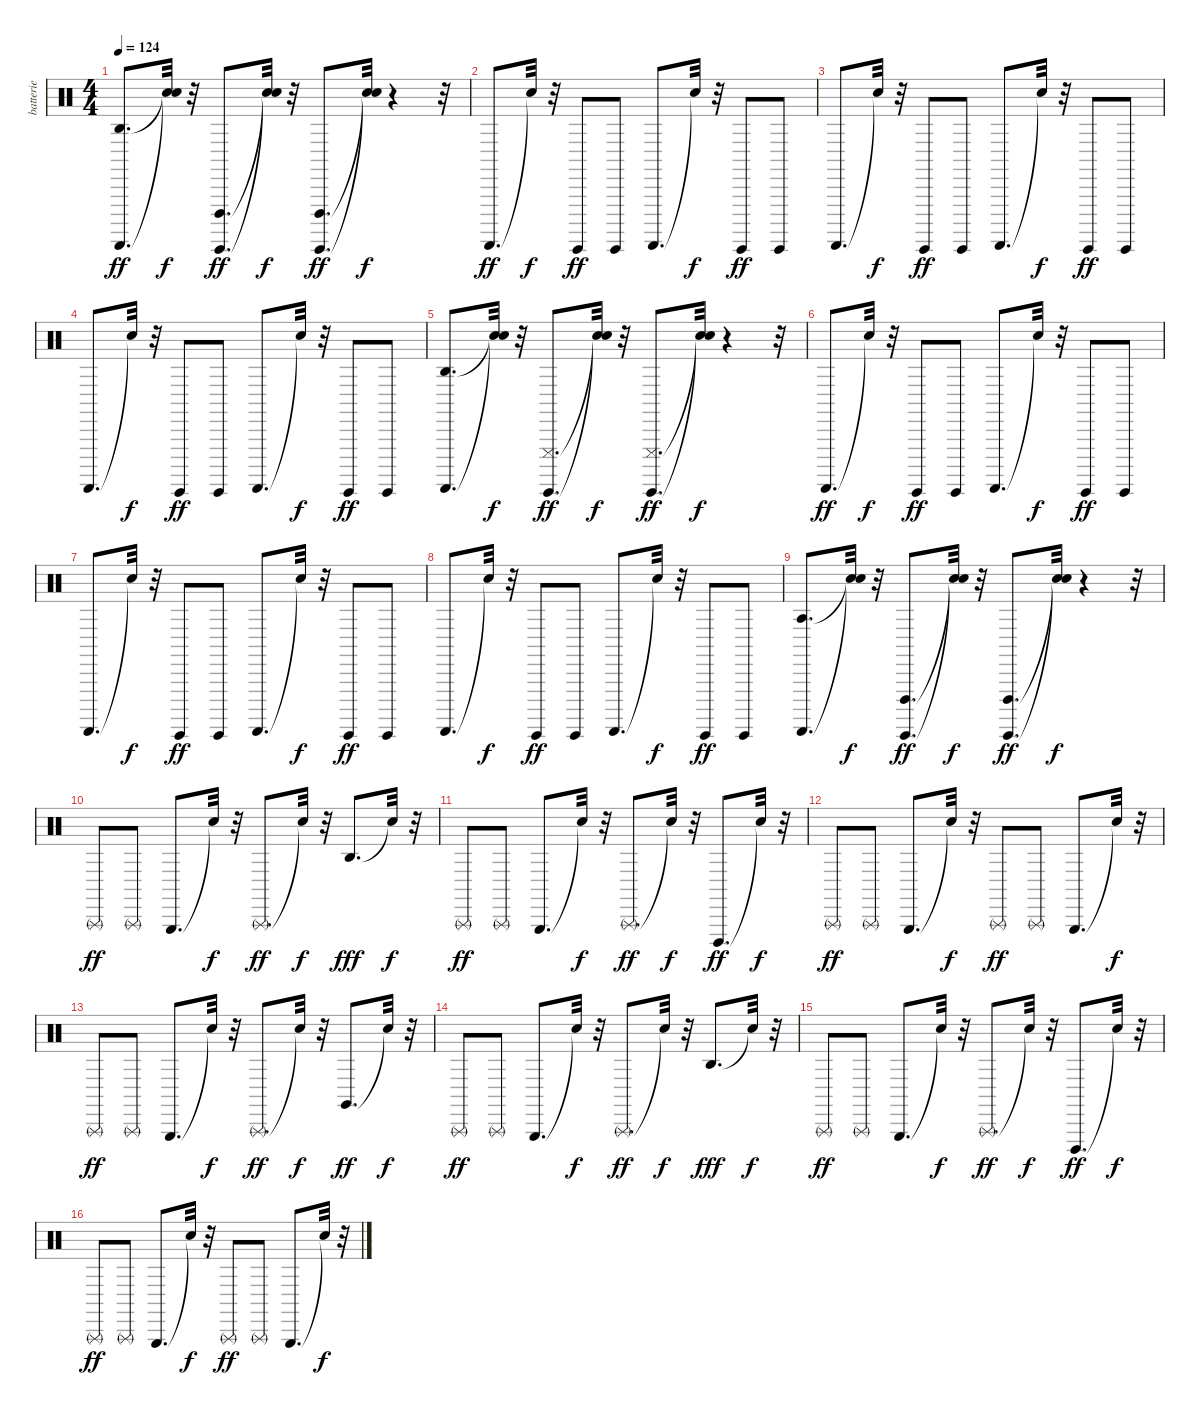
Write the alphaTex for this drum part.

\track ("batterie" "batterie") {instrument percussion}
\staff {score}
\articulation defaults
\ts (4 4)
\tempo 124
\clef neutral
\ks c
("Agogo high (hit)" "Guiro (scrap-return)").8{d dy ff} ("Snare (hit)"{t} "Snare (hit)"{t}).32{dy f} r.32 ("Guiro (hit)" "Cuica (open)").8{d dy ff} ("Snare (hit)"{t} "Snare (hit)"{t}).32{dy f} r.32 ("Guiro (hit)" "Cuica (open)").8{d dy ff} ("Snare (hit)"{t} "Snare (hit)"{t}).32{dy f} r.4 r.32 |
"Guiro (scrap-return)".8{d dy ff} "Snare (hit)"{t}.32{dy f} r.32 "Guiro (hit)".8{dy ff} "Guiro (hit)".8 "Guiro (scrap-return)".8{d} "Snare (hit)"{t}.32{dy f} r.32 "Guiro (hit)".8{dy ff} "Guiro (hit)".8 |
"Guiro (scrap-return)".8{d} "Snare (hit)"{t}.32{dy f} r.32 "Guiro (hit)".8{dy ff} "Guiro (hit)".8 "Guiro (scrap-return)".8{d} "Snare (hit)"{t}.32{dy f} r.32 "Guiro (hit)".8{dy ff} "Guiro (hit)".8 |
"Guiro (scrap-return)".8{d} "Snare (hit)"{t}.32{dy f} r.32 "Guiro (hit)".8{dy ff} "Guiro (hit)".8 "Guiro (scrap-return)".8{d} "Snare (hit)"{t}.32{dy f} r.32 "Guiro (hit)".8{dy ff} "Guiro (hit)".8 |
("Agogo high (hit)" "Guiro (scrap-return)").8{d} ("Snare (hit)"{t} "Snare (hit)"{t}).32{dy f} r.32 ("Guiro (hit)" "Cuica (mute)").8{d dy ff} ("Snare (hit)"{t} "Snare (hit)"{t}).32{dy f} r.32 ("Guiro (hit)" "Cuica (mute)").8{d dy ff} ("Snare (hit)"{t} "Snare (hit)"{t}).32{dy f} r.4 r.32 |
"Guiro (scrap-return)".8{d dy ff} "Snare (hit)"{t}.32{dy f} r.32 "Guiro (hit)".8{dy ff} "Guiro (hit)".8 "Guiro (scrap-return)".8{d} "Snare (hit)"{t}.32{dy f} r.32 "Guiro (hit)".8{dy ff} "Guiro (hit)".8 |
"Guiro (scrap-return)".8{d} "Snare (hit)"{t}.32{dy f} r.32 "Guiro (hit)".8{dy ff} "Guiro (hit)".8 "Guiro (scrap-return)".8{d} "Snare (hit)"{t}.32{dy f} r.32 "Guiro (hit)".8{dy ff} "Guiro (hit)".8 |
"Guiro (scrap-return)".8{d} "Snare (hit)"{t}.32{dy f} r.32 "Guiro (hit)".8{dy ff} "Guiro (hit)".8 "Guiro (scrap-return)".8{d} "Snare (hit)"{t}.32{dy f} r.32 "Guiro (hit)".8{dy ff} "Guiro (hit)".8 |
("Agogo tow (hit)" "Guiro (scrap-return)").8{d} ("Snare (hit)"{t} "Snare (hit)"{t}).32{dy f} r.32 ("Guiro (hit)" "Cuica (open)").8{d dy ff} ("Snare (hit)"{t} "Snare (hit)"{t}).32{dy f} r.32 ("Guiro (hit)" "Cuica (open)").8{d dy ff} ("Snare (hit)"{t} "Snare (hit)"{t}).32{dy f} r.4 r.32 |
"Triangle (rnute)".8{dy ff} "Triangle (rnute)".8 "Triangle (hit)".8{d} "Snare (hit)"{t}.32{dy f} r.32 "Triangle (rnute)".8{d dy ff} "Snare (hit)"{t}.32{dy f} r.32 "Agogo high (hit)".8{d dy fff} "Snare (hit)"{t}.32{dy f} r.32 |
"Triangle (rnute)".8{dy ff} "Triangle (rnute)".8 "Triangle (hit)".8{d} "Snare (hit)"{t}.32{dy f} r.32 "Triangle (rnute)".8{d dy ff} "Snare (hit)"{t}.32{dy f} r.32 "Cuica (open)".8{d dy ff} "Snare (hit)"{t}.32{dy f} r.32 |
"Triangle (rnute)".8{dy ff} "Triangle (rnute)".8 "Triangle (hit)".8{d} "Snare (hit)"{t}.32{dy f} r.32 "Triangle (rnute)".8{dy ff} "Triangle (rnute)".8 "Triangle (hit)".8{d} "Snare (hit)"{t}.32{dy f} r.32 |
"Triangle (rnute)".8{dy ff} "Triangle (rnute)".8 "Triangle (hit)".8{d} "Snare (hit)"{t}.32{dy f} r.32 "Triangle (rnute)".8{d dy ff} "Snare (hit)"{t}.32{dy f} r.32 "Claves (hit)".8{d dy ff} "Snare (hit)"{t}.32{dy f} r.32 |
"Triangle (rnute)".8{dy ff} "Triangle (rnute)".8 "Triangle (hit)".8{d} "Snare (hit)"{t}.32{dy f} r.32 "Triangle (rnute)".8{d dy ff} "Snare (hit)"{t}.32{dy f} r.32 "Agogo high (hit)".8{d dy fff} "Snare (hit)"{t}.32{dy f} r.32 |
"Triangle (rnute)".8{dy ff} "Triangle (rnute)".8 "Triangle (hit)".8{d} "Snare (hit)"{t}.32{dy f} r.32 "Triangle (rnute)".8{d dy ff} "Snare (hit)"{t}.32{dy f} r.32 "Cuica (open)".8{d dy ff} "Snare (hit)"{t}.32{dy f} r.32 |
"Triangle (rnute)".8{dy ff} "Triangle (rnute)".8 "Triangle (hit)".8{d} "Snare (hit)"{t}.32{dy f} r.32 "Triangle (rnute)".8{dy ff} "Triangle (rnute)".8 "Triangle (hit)".8{d} "Snare (hit)"{t}.32{dy f} r.32
